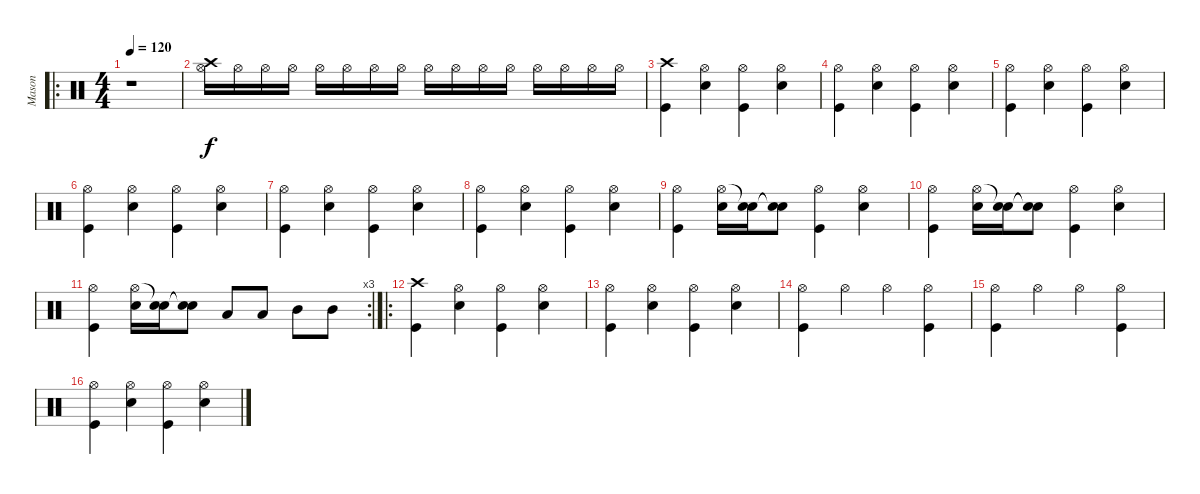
\track ("Mason" "Mason") {instrument percussion}
\staff {score}
\articulation defaults
\ro
\ts (4 4)
\tempo 120
\clef neutral
\ks c
r.1{dy f} |
("Hi-Hat (open)" "Crash high (hit)").16 "Hi-Hat (open)".16 "Hi-Hat (open)".16 "Hi-Hat (open)".16 "Hi-Hat (open)".16 "Hi-Hat (open)".16 "Hi-Hat (open)".16 "Hi-Hat (open)".16 "Hi-Hat (open)".16 "Hi-Hat (open)".16 "Hi-Hat (open)".16 "Hi-Hat (open)".16 "Hi-Hat (open)".16 "Hi-Hat (open)".16 "Hi-Hat (open)".16 "Hi-Hat (open)".16 |
("Kick (hit)" "Crash high (hit)").4 ("Snare (hit) 2" "Hi-Hat (open)").4 ("Kick (hit)" "Hi-Hat (open)").4 ("Snare (hit) 2" "Hi-Hat (open)").4 |
("Kick (hit)" "Hi-Hat (open)").4 ("Snare (hit) 2" "Hi-Hat (open)").4 ("Kick (hit)" "Hi-Hat (open)").4 ("Snare (hit) 2" "Hi-Hat (open)").4 |
("Kick (hit)" "Hi-Hat (open)").4 ("Snare (hit) 2" "Hi-Hat (open)").4 ("Kick (hit)" "Hi-Hat (open)").4 ("Snare (hit) 2" "Hi-Hat (open)").4 |
("Kick (hit)" "Hi-Hat (open)").4 ("Snare (hit) 2" "Hi-Hat (open)").4 ("Kick (hit)" "Hi-Hat (open)").4 ("Snare (hit) 2" "Hi-Hat (open)").4 |
("Kick (hit)" "Hi-Hat (open)").4 ("Snare (hit) 2" "Hi-Hat (open)").4 ("Kick (hit)" "Hi-Hat (open)").4 ("Snare (hit) 2" "Hi-Hat (open)").4 |
("Kick (hit)" "Hi-Hat (open)").4 ("Snare (hit) 2" "Hi-Hat (open)").4 ("Kick (hit)" "Hi-Hat (open)").4 ("Snare (hit) 2" "Hi-Hat (open)").4 |
("Kick (hit)" "Hi-Hat (open)").4 ("Snare (hit) 2" "Hi-Hat (open)").16 ("Snare (hit) 2" "Snare (hit)"{t}).16 ("Snare (hit)"{t} "Snare (hit)"{t}).8 ("Kick (hit)" "Hi-Hat (open)").4 ("Snare (hit) 2" "Hi-Hat (open)").4 |
("Kick (hit)" "Hi-Hat (open)").4 ("Snare (hit) 2" "Hi-Hat (open)").16 ("Snare (hit) 2" "Snare (hit)"{t}).16 ("Snare (hit)"{t} "Snare (hit)"{t}).8 ("Kick (hit)" "Hi-Hat (open)").4 ("Snare (hit) 2" "Hi-Hat (open)").4 |
\rc 3
("Kick (hit)" "Hi-Hat (open)").4 ("Snare (hit) 2" "Hi-Hat (open)").16 ("Snare (hit) 2" "Snare (hit)"{t}).16 ("Snare (hit)"{t} "Snare (hit)"{t}).8 "Low Tom (hit)".8 "Low Tom (hit)".8 "Mid Tom (hit)".8 "Mid Tom (hit)".8 |
\ro
("Kick (hit)" "Crash high (hit)").4 ("Snare (hit) 2" "Hi-Hat (open)").4 ("Kick (hit)" "Hi-Hat (open)").4 ("Snare (hit) 2" "Hi-Hat (open)").4 |
("Kick (hit)" "Hi-Hat (open)").4 ("Snare (hit) 2" "Hi-Hat (open)").4 ("Kick (hit)" "Hi-Hat (open)").4 ("Snare (hit) 2" "Hi-Hat (open)").4 |
("Kick (hit)" "Hi-Hat (open)").4 "Hi-Hat (open)".4 "Hi-Hat (open)".4 ("Kick (hit)" "Hi-Hat (open)").4 |
("Kick (hit)" "Hi-Hat (open)").4 "Hi-Hat (open)".4 "Hi-Hat (open)".4 ("Kick (hit)" "Hi-Hat (open)").4 |
("Kick (hit)" "Hi-Hat (open)").4 ("Snare (hit) 2" "Hi-Hat (open)").4 ("Kick (hit)" "Hi-Hat (open)").4 ("Snare (hit) 2" "Hi-Hat (open)").4
